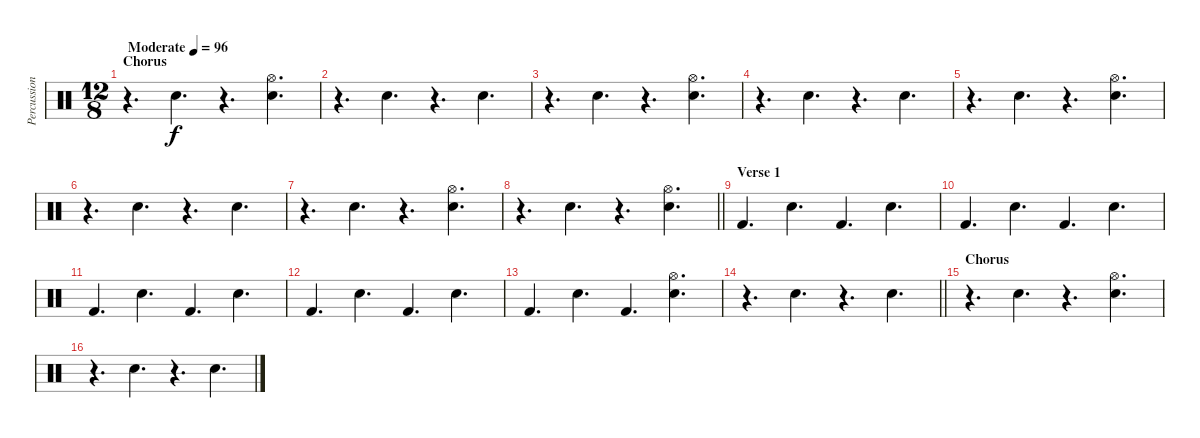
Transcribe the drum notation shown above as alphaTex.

\track ("Percussion" "Percussion") {instrument percussion}
\staff {score}
\articulation defaults
\ts (12 8)
\section ("" "Chorus")
\tempo (96 "Moderate")
\clef neutral
\ks c
r.4{d dy f} "Snare (hit) 2".4{d} r.4{d} ("Hi-Hat (open)" "Snare (hit) 2").4{d} |
r.4{d} "Snare (hit) 2".4{d} r.4{d} "Snare (hit) 2".4{d} |
r.4{d} "Snare (hit) 2".4{d} r.4{d} ("Hi-Hat (open)" "Snare (hit) 2").4{d} |
r.4{d} "Snare (hit) 2".4{d} r.4{d} "Snare (hit) 2".4{d} |
r.4{d} "Snare (hit) 2".4{d} r.4{d} ("Hi-Hat (open)" "Snare (hit) 2").4{d} |
r.4{d} "Snare (hit) 2".4{d} r.4{d} "Snare (hit) 2".4{d} |
r.4{d} "Snare (hit) 2".4{d} r.4{d} ("Hi-Hat (open)" "Snare (hit) 2").4{d} |
\barLineRight lightlight
r.4{d} "Snare (hit) 2".4{d} r.4{d} ("Hi-Hat (open)" "Snare (hit) 2").4{d} |
\section ("" "Verse 1")
"Kick (hit) 2".4{d} "Snare (hit) 2".4{d} "Kick (hit) 2".4{d} "Snare (hit) 2".4{d} |
"Kick (hit) 2".4{d} "Snare (hit) 2".4{d} "Kick (hit) 2".4{d} "Snare (hit) 2".4{d} |
"Kick (hit) 2".4{d} "Snare (hit) 2".4{d} "Kick (hit) 2".4{d} "Snare (hit) 2".4{d} |
"Kick (hit) 2".4{d} "Snare (hit) 2".4{d} "Kick (hit) 2".4{d} "Snare (hit) 2".4{d} |
"Kick (hit) 2".4{d} "Snare (hit) 2".4{d} "Kick (hit) 2".4{d} ("Hi-Hat (open)" "Snare (hit) 2").4{d} |
\barLineRight lightlight
r.4{d} "Snare (hit) 2".4{d} r.4{d} "Snare (hit) 2".4{d} |
\section ("" "Chorus")
r.4{d} "Snare (hit) 2".4{d} r.4{d} ("Hi-Hat (open)" "Snare (hit) 2").4{d} |
r.4{d} "Snare (hit) 2".4{d} r.4{d} "Snare (hit) 2".4{d}
